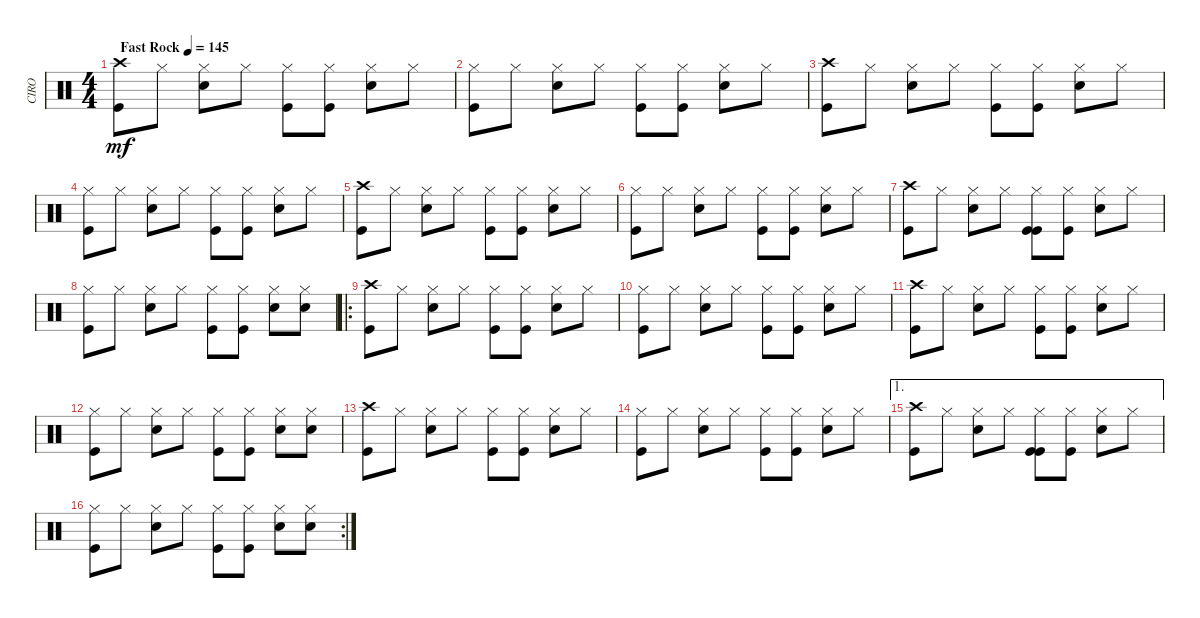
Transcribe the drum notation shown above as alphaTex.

\track ("CIRO" "CIRO") {instrument percussion}
\staff {score}
\articulation defaults
\ts (4 4)
\tempo (145 "Fast Rock")
\clef neutral
\ks c
("Crash high (hit)" "Kick (hit)").8{dy mf} "Hi-Hat (closed)".8 ("Hi-Hat (closed)" "Snare (hit) 2").8 "Hi-Hat (closed)".8 ("Hi-Hat (closed)" "Kick (hit)").8 ("Hi-Hat (closed)" "Kick (hit)").8 ("Hi-Hat (closed)" "Snare (hit) 2").8 "Hi-Hat (closed)".8 |
("Hi-Hat (closed)" "Kick (hit)").8 "Hi-Hat (closed)".8 ("Hi-Hat (closed)" "Snare (hit) 2").8 "Hi-Hat (closed)".8 ("Hi-Hat (closed)" "Kick (hit)").8 ("Hi-Hat (closed)" "Kick (hit)").8 ("Hi-Hat (closed)" "Snare (hit) 2").8 "Hi-Hat (closed)".8 |
("Crash high (hit)" "Kick (hit)").8 "Hi-Hat (closed)".8 ("Hi-Hat (closed)" "Snare (hit) 2").8 "Hi-Hat (closed)".8 ("Hi-Hat (closed)" "Kick (hit)").8 ("Hi-Hat (closed)" "Kick (hit)").8 ("Hi-Hat (closed)" "Snare (hit) 2").8 "Hi-Hat (closed)".8 |
("Hi-Hat (closed)" "Kick (hit)").8 "Hi-Hat (closed)".8 ("Hi-Hat (closed)" "Snare (hit) 2").8 "Hi-Hat (closed)".8 ("Hi-Hat (closed)" "Kick (hit)").8 ("Hi-Hat (closed)" "Kick (hit)").8 ("Hi-Hat (closed)" "Snare (hit) 2").8 "Hi-Hat (closed)".8 |
("Crash high (hit)" "Kick (hit)").8 "Hi-Hat (closed)".8 ("Hi-Hat (closed)" "Snare (hit) 2").8 "Hi-Hat (closed)".8 ("Hi-Hat (closed)" "Kick (hit)").8 ("Hi-Hat (closed)" "Kick (hit)").8 ("Hi-Hat (closed)" "Snare (hit) 2").8 "Hi-Hat (closed)".8 |
("Hi-Hat (closed)" "Kick (hit)").8 "Hi-Hat (closed)".8 ("Hi-Hat (closed)" "Snare (hit) 2").8 "Hi-Hat (closed)".8 ("Hi-Hat (closed)" "Kick (hit)").8 ("Hi-Hat (closed)" "Kick (hit)").8 ("Hi-Hat (closed)" "Snare (hit) 2").8 "Hi-Hat (closed)".8 |
("Crash high (hit)" "Kick (hit)").8 "Hi-Hat (closed)".8 ("Hi-Hat (closed)" "Snare (hit) 2").8 "Hi-Hat (closed)".8 ("Hi-Hat (closed)" "Kick (hit)" "Kick (hit)").8 ("Hi-Hat (closed)" "Kick (hit)").8 ("Hi-Hat (closed)" "Snare (hit) 2").8 "Hi-Hat (closed)".8 |
("Hi-Hat (closed)" "Kick (hit)").8 "Hi-Hat (closed)".8 ("Hi-Hat (closed)" "Snare (hit) 2").8 "Hi-Hat (closed)".8 ("Hi-Hat (closed)" "Kick (hit)").8 ("Hi-Hat (closed)" "Kick (hit)").8 ("Hi-Hat (closed)" "Snare (hit) 2").8 ("Hi-Hat (closed)" "Snare (hit) 2").8 |
\ro
("Crash high (hit)" "Kick (hit)").8 "Hi-Hat (closed)".8 ("Hi-Hat (closed)" "Snare (hit) 2").8 "Hi-Hat (closed)".8 ("Hi-Hat (closed)" "Kick (hit)").8 ("Hi-Hat (closed)" "Kick (hit)").8 ("Hi-Hat (closed)" "Snare (hit) 2").8 "Hi-Hat (closed)".8 |
("Hi-Hat (closed)" "Kick (hit)").8 "Hi-Hat (closed)".8 ("Hi-Hat (closed)" "Snare (hit) 2").8 "Hi-Hat (closed)".8 ("Hi-Hat (closed)" "Kick (hit)").8 ("Hi-Hat (closed)" "Kick (hit)").8 ("Hi-Hat (closed)" "Snare (hit) 2").8 "Hi-Hat (closed)".8 |
("Crash high (hit)" "Kick (hit)").8 "Hi-Hat (closed)".8 ("Hi-Hat (closed)" "Snare (hit) 2").8 "Hi-Hat (closed)".8 ("Hi-Hat (closed)" "Kick (hit)").8 ("Hi-Hat (closed)" "Kick (hit)").8 ("Hi-Hat (closed)" "Snare (hit) 2").8 "Hi-Hat (closed)".8 |
("Hi-Hat (closed)" "Kick (hit)").8 "Hi-Hat (closed)".8 ("Hi-Hat (closed)" "Snare (hit) 2").8 "Hi-Hat (closed)".8 ("Hi-Hat (closed)" "Kick (hit)").8 ("Hi-Hat (closed)" "Kick (hit)").8 ("Hi-Hat (closed)" "Snare (hit) 2").8 ("Hi-Hat (closed)" "Snare (hit) 2").8 |
("Crash high (hit)" "Kick (hit)").8 "Hi-Hat (closed)".8 ("Hi-Hat (closed)" "Snare (hit) 2").8 "Hi-Hat (closed)".8 ("Hi-Hat (closed)" "Kick (hit)").8 ("Hi-Hat (closed)" "Kick (hit)").8 ("Hi-Hat (closed)" "Snare (hit) 2").8 "Hi-Hat (closed)".8 |
("Hi-Hat (closed)" "Kick (hit)").8 "Hi-Hat (closed)".8 ("Hi-Hat (closed)" "Snare (hit) 2").8 "Hi-Hat (closed)".8 ("Hi-Hat (closed)" "Kick (hit)").8 ("Hi-Hat (closed)" "Kick (hit)").8 ("Hi-Hat (closed)" "Snare (hit) 2").8 "Hi-Hat (closed)".8 |
\ae 1
("Crash high (hit)" "Kick (hit)").8 "Hi-Hat (closed)".8 ("Hi-Hat (closed)" "Snare (hit) 2").8 "Hi-Hat (closed)".8 ("Hi-Hat (closed)" "Kick (hit)" "Kick (hit)").8 ("Hi-Hat (closed)" "Kick (hit)").8 ("Hi-Hat (closed)" "Snare (hit) 2").8 "Hi-Hat (closed)".8 |
\rc 2
("Hi-Hat (closed)" "Kick (hit)").8 "Hi-Hat (closed)".8 ("Hi-Hat (closed)" "Snare (hit) 2").8 "Hi-Hat (closed)".8 ("Hi-Hat (closed)" "Kick (hit)").8 ("Hi-Hat (closed)" "Kick (hit)").8 ("Hi-Hat (closed)" "Snare (hit) 2").8 ("Hi-Hat (closed)" "Snare (hit) 2").8
